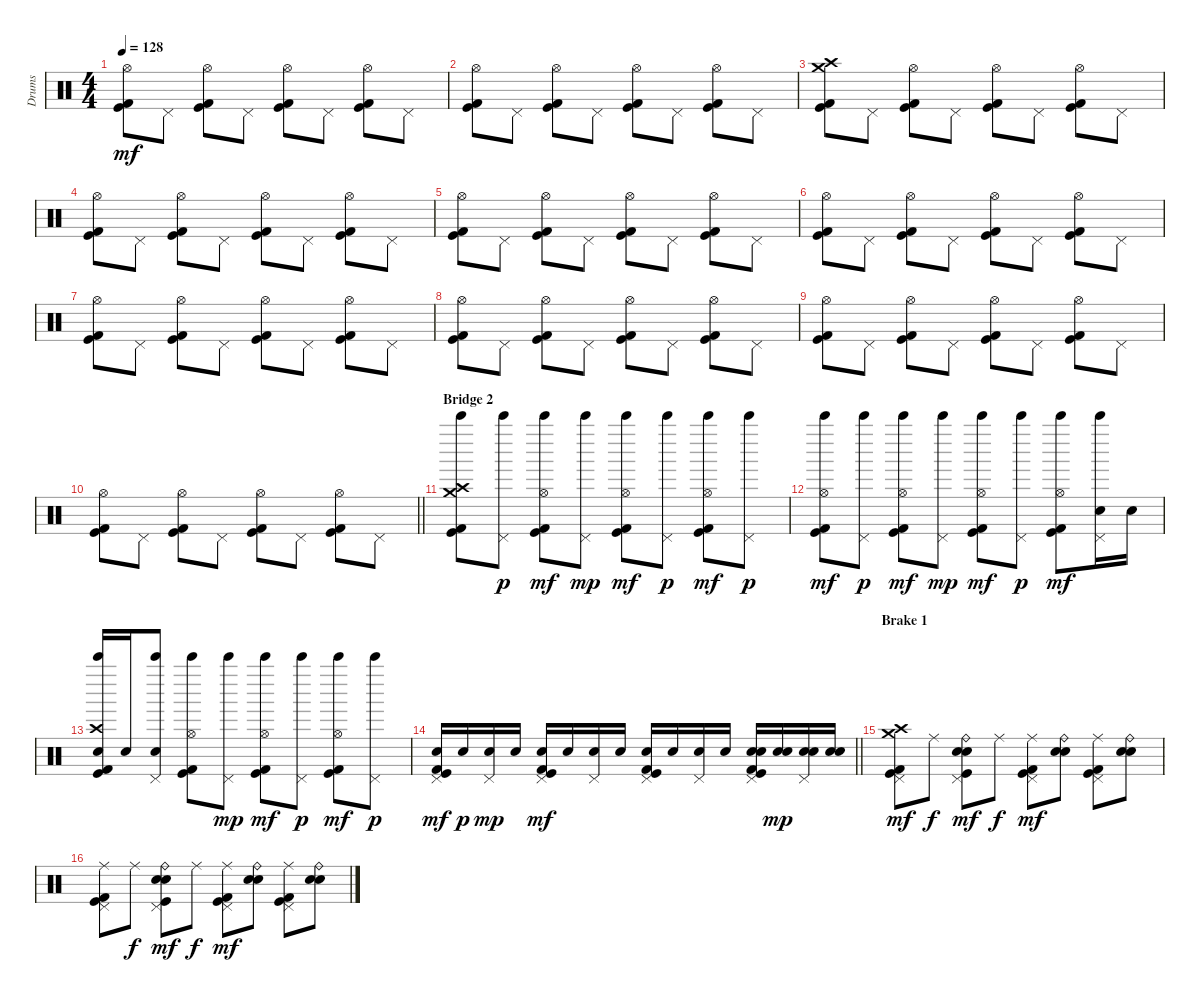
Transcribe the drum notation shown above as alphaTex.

\track ("Drums" "Drums") {instrument percussion}
\staff {score}
\articulation defaults
\ts (4 4)
\tempo 128
\clef neutral
\ks c
("Hi-Hat (open)" "Kick (hit) 2" "Kick (hit)").8{dy mf} "Pedal Hi-Hat (hit)".8 ("Hi-Hat (open)" "Kick (hit) 2" "Kick (hit)").8 "Pedal Hi-Hat (hit)".8 ("Hi-Hat (open)" "Kick (hit) 2" "Kick (hit)").8 "Pedal Hi-Hat (hit)".8 ("Hi-Hat (open)" "Kick (hit) 2" "Kick (hit)").8 "Pedal Hi-Hat (hit)".8 |
("Hi-Hat (open)" "Kick (hit) 2" "Kick (hit)").8 "Pedal Hi-Hat (hit)".8 ("Hi-Hat (open)" "Kick (hit) 2" "Kick (hit)").8 "Pedal Hi-Hat (hit)".8 ("Hi-Hat (open)" "Kick (hit) 2" "Kick (hit)").8 "Pedal Hi-Hat (hit)".8 ("Hi-Hat (open)" "Kick (hit) 2" "Kick (hit)").8 "Pedal Hi-Hat (hit)".8 |
("Crash high (hit)" "Crash medium (hit)" "Kick (hit) 2" "Kick (hit)").8 "Pedal Hi-Hat (hit)".8 ("Hi-Hat (open)" "Kick (hit) 2" "Kick (hit)").8 "Pedal Hi-Hat (hit)".8 ("Hi-Hat (open)" "Kick (hit) 2" "Kick (hit)").8 "Pedal Hi-Hat (hit)".8 ("Hi-Hat (open)" "Kick (hit) 2" "Kick (hit)").8 "Pedal Hi-Hat (hit)".8 |
("Hi-Hat (open)" "Kick (hit) 2" "Kick (hit)").8 "Pedal Hi-Hat (hit)".8 ("Hi-Hat (open)" "Kick (hit) 2" "Kick (hit)").8 "Pedal Hi-Hat (hit)".8 ("Hi-Hat (open)" "Kick (hit) 2" "Kick (hit)").8 "Pedal Hi-Hat (hit)".8 ("Hi-Hat (open)" "Kick (hit) 2" "Kick (hit)").8 "Pedal Hi-Hat (hit)".8 |
("Hi-Hat (open)" "Kick (hit) 2" "Kick (hit)").8 "Pedal Hi-Hat (hit)".8 ("Hi-Hat (open)" "Kick (hit) 2" "Kick (hit)").8 "Pedal Hi-Hat (hit)".8 ("Hi-Hat (open)" "Kick (hit) 2" "Kick (hit)").8 "Pedal Hi-Hat (hit)".8 ("Hi-Hat (open)" "Kick (hit) 2" "Kick (hit)").8 "Pedal Hi-Hat (hit)".8 |
("Hi-Hat (open)" "Kick (hit) 2" "Kick (hit)").8 "Pedal Hi-Hat (hit)".8 ("Hi-Hat (open)" "Kick (hit) 2" "Kick (hit)").8 "Pedal Hi-Hat (hit)".8 ("Hi-Hat (open)" "Kick (hit) 2" "Kick (hit)").8 "Pedal Hi-Hat (hit)".8 ("Hi-Hat (open)" "Kick (hit) 2" "Kick (hit)").8 "Pedal Hi-Hat (hit)".8 |
("Hi-Hat (open)" "Kick (hit) 2" "Kick (hit)").8 "Pedal Hi-Hat (hit)".8 ("Hi-Hat (open)" "Kick (hit) 2" "Kick (hit)").8 "Pedal Hi-Hat (hit)".8 ("Hi-Hat (open)" "Kick (hit) 2" "Kick (hit)").8 "Pedal Hi-Hat (hit)".8 ("Hi-Hat (open)" "Kick (hit) 2" "Kick (hit)").8 "Pedal Hi-Hat (hit)".8 |
("Hi-Hat (open)" "Kick (hit) 2" "Kick (hit)").8 "Pedal Hi-Hat (hit)".8 ("Hi-Hat (open)" "Kick (hit) 2" "Kick (hit)").8 "Pedal Hi-Hat (hit)".8 ("Hi-Hat (open)" "Kick (hit) 2" "Kick (hit)").8 "Pedal Hi-Hat (hit)".8 ("Hi-Hat (open)" "Kick (hit) 2" "Kick (hit)").8 "Pedal Hi-Hat (hit)".8 |
("Hi-Hat (open)" "Kick (hit) 2" "Kick (hit)").8 "Pedal Hi-Hat (hit)".8 ("Hi-Hat (open)" "Kick (hit) 2" "Kick (hit)").8 "Pedal Hi-Hat (hit)".8 ("Hi-Hat (open)" "Kick (hit) 2" "Kick (hit)").8 "Pedal Hi-Hat (hit)".8 ("Hi-Hat (open)" "Kick (hit) 2" "Kick (hit)").8 "Pedal Hi-Hat (hit)".8 |
\barLineRight lightlight
("Hi-Hat (open)" "Kick (hit) 2" "Kick (hit)").8 "Pedal Hi-Hat (hit)".8 ("Hi-Hat (open)" "Kick (hit) 2" "Kick (hit)").8 "Pedal Hi-Hat (hit)".8 ("Hi-Hat (open)" "Kick (hit) 2" "Kick (hit)").8 "Pedal Hi-Hat (hit)".8 ("Hi-Hat (open)" "Kick (hit) 2" "Kick (hit)").8 "Pedal Hi-Hat (hit)".8 |
\section ("" "Bridge 2")
("Crash high (hit)" "Crash medium (hit)" "Bell Tree (hit)" "Kick (hit) 2" "Kick (hit)").8 ("Pedal Hi-Hat (hit)" "Bell Tree (hit)").8{dy p} ("Hi-Hat (open)" "Bell Tree (hit)" "Kick (hit) 2" "Kick (hit)").8{dy mf} ("Pedal Hi-Hat (hit)" "Bell Tree (hit)").8{dy mp} ("Hi-Hat (open)" "Bell Tree (hit)" "Kick (hit) 2" "Kick (hit)").8{dy mf} ("Pedal Hi-Hat (hit)" "Bell Tree (hit)").8{dy p} ("Hi-Hat (open)" "Bell Tree (hit)" "Kick (hit) 2" "Kick (hit)").8{dy mf} ("Pedal Hi-Hat (hit)" "Bell Tree (hit)").8{dy p} |
("Hi-Hat (open)" "Bell Tree (hit)" "Kick (hit) 2" "Kick (hit)").8{dy mf} ("Pedal Hi-Hat (hit)" "Bell Tree (hit)").8{dy p} ("Hi-Hat (open)" "Bell Tree (hit)" "Kick (hit) 2" "Kick (hit)").8{dy mf} ("Pedal Hi-Hat (hit)" "Bell Tree (hit)").8{dy mp} ("Hi-Hat (open)" "Bell Tree (hit)" "Kick (hit) 2" "Kick (hit)").8{dy mf} ("Pedal Hi-Hat (hit)" "Bell Tree (hit)").8{dy p} ("Hi-Hat (open)" "Bell Tree (hit)" "Kick (hit) 2" "Kick (hit)").8{dy mf} ("Pedal Hi-Hat (hit)" "Bell Tree (hit)" "Electric Snare (hit)").16 "Electric Snare (hit)".16 |
("Crash high (hit)" "Bell Tree (hit)" "Electric Snare (hit)" "Kick (hit) 2" "Kick (hit)").16 "Electric Snare (hit)".16 ("Pedal Hi-Hat (hit)" "Bell Tree (hit)" "Electric Snare (hit)").8 ("Hi-Hat (open)" "Bell Tree (hit)" "Kick (hit) 2" "Kick (hit)").8 ("Pedal Hi-Hat (hit)" "Bell Tree (hit)").8{dy mp} ("Hi-Hat (open)" "Bell Tree (hit)" "Kick (hit) 2" "Kick (hit)").8{dy mf} ("Pedal Hi-Hat (hit)" "Bell Tree (hit)").8{dy p} ("Hi-Hat (open)" "Bell Tree (hit)" "Kick (hit) 2" "Kick (hit)").8{dy mf} ("Pedal Hi-Hat (hit)" "Bell Tree (hit)").8{dy p} |
\barLineRight lightlight
("Pedal Hi-Hat (hit)" "Electric Snare (hit)" "Kick (hit) 2" "Kick (hit)").16{dy mf} "Electric Snare (hit)".16{dy p} ("Pedal Hi-Hat (hit)" "Electric Snare (hit)").16{dy mp} "Electric Snare (hit)".16 ("Pedal Hi-Hat (hit)" "Electric Snare (hit)" "Kick (hit) 2" "Kick (hit)").16{dy mf} "Electric Snare (hit)".16 ("Pedal Hi-Hat (hit)" "Electric Snare (hit)").16 "Electric Snare (hit)".16 ("Pedal Hi-Hat (hit)" "Electric Snare (hit)" "Kick (hit) 2" "Kick (hit)").16 "Electric Snare (hit)".16 ("Pedal Hi-Hat (hit)" "Electric Snare (hit)").16 "Electric Snare (hit)".16 ("Pedal Hi-Hat (hit)" "Snare (hit) 2" "Electric Snare (hit)" "Kick (hit) 2" "Kick (hit)").16 ("Snare (hit) 2" "Electric Snare (hit)").16{dy mp} ("Pedal Hi-Hat (hit)" "Snare (hit) 2" "Electric Snare (hit)").16 ("Snare (hit) 2" "Electric Snare (hit)").16 |
\section ("" "Brake 1")
("Crash high (hit)" "Crash medium (hit)" "Pedal Hi-Hat (hit)" "Kick (hit) 2" "Kick (hit)").8{dy mf volume 12} "Ride (middle)".8{dy f} ("Ride (bell)" "Pedal Hi-Hat (hit)" "Snare (hit) 2" "Electric Snare (hit)" "Kick (hit)").8{dy mf} "Ride (middle)".8{dy f} ("Ride (middle)" "Pedal Hi-Hat (hit)" "Kick (hit) 2" "Kick (hit)").8{dy mf} ("Ride (bell)" "Snare (hit) 2" "Electric Snare (hit)").8 ("Ride (middle)" "Pedal Hi-Hat (hit)" "Kick (hit) 2" "Kick (hit)").8 ("Ride (bell)" "Snare (hit) 2" "Electric Snare (hit)").8 |
("Ride (middle)" "Pedal Hi-Hat (hit)" "Kick (hit) 2" "Kick (hit)").8 "Ride (middle)".8{dy f} ("Ride (bell)" "Pedal Hi-Hat (hit)" "Snare (hit) 2" "Electric Snare (hit)" "Kick (hit)").8{dy mf} "Ride (middle)".8{dy f} ("Ride (middle)" "Pedal Hi-Hat (hit)" "Kick (hit) 2" "Kick (hit)").8{dy mf} ("Ride (bell)" "Snare (hit) 2" "Electric Snare (hit)").8 ("Ride (middle)" "Pedal Hi-Hat (hit)" "Kick (hit) 2" "Kick (hit)").8 ("Ride (bell)" "Snare (hit) 2" "Electric Snare (hit)").8
